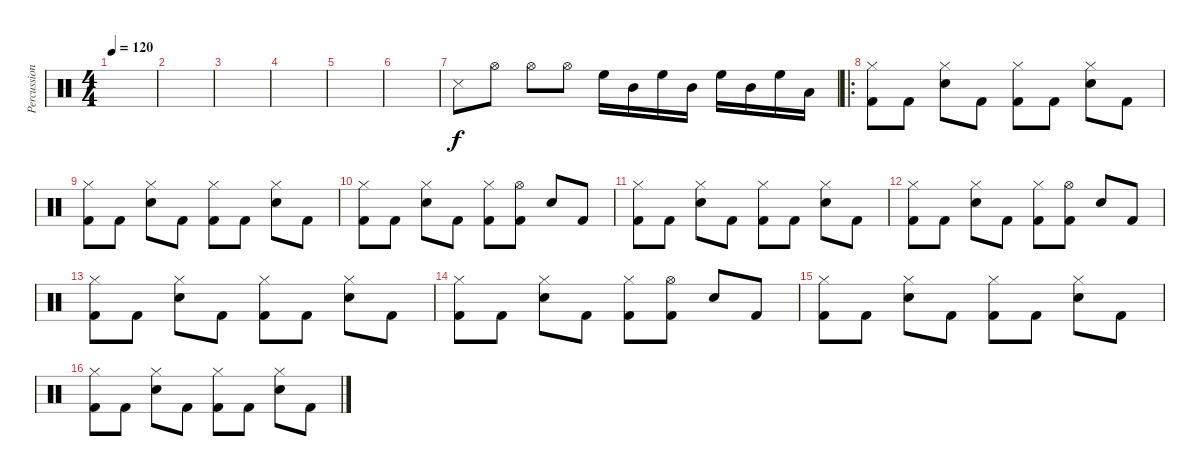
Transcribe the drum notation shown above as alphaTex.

\track ("Percussions" "Percussion") {instrument percussion}
\staff {score}
\articulation defaults
\ts (4 4)
\tempo 120
\clef neutral
\ks c
|
|
|
|
|
|
"Snare (side stick) 3".8 "Hi-Hat (open)".8 "Hi-Hat (open)".8 "Hi-Hat (open)".8 "High Floor Tom (hit)".16 "Mid Tom (hit)".16 "High Floor Tom (hit)".16 "Mid Tom (hit)".16 "High Floor Tom (hit)".16 "Mid Tom (hit)".16 "High Floor Tom (hit)".16 "Low Tom (hit)".16 |
\ro
("Hi-Hat (closed)" "Kick (hit) 2").8 "Kick (hit) 2".8 ("Hi-Hat (closed)" "Electric Snare (hit)").8 "Kick (hit) 2".8 ("Hi-Hat (closed)" "Kick (hit) 2").8 "Kick (hit) 2".8 ("Hi-Hat (closed)" "Electric Snare (hit)").8 "Kick (hit) 2".8 |
("Hi-Hat (closed)" "Kick (hit) 2").8 "Kick (hit) 2".8 ("Hi-Hat (closed)" "Electric Snare (hit)").8 "Kick (hit) 2".8 ("Hi-Hat (closed)" "Kick (hit) 2").8 "Kick (hit) 2".8 ("Hi-Hat (closed)" "Electric Snare (hit)").8 "Kick (hit) 2".8 |
("Hi-Hat (closed)" "Kick (hit) 2").8 "Kick (hit) 2".8 ("Hi-Hat (closed)" "Electric Snare (hit)").8 "Kick (hit) 2".8 ("Hi-Hat (closed)" "Kick (hit) 2").8 ("Hi-Hat (open)" "Kick (hit) 2").8 "Electric Snare (hit)".8 "Kick (hit) 2".8 |
("Hi-Hat (closed)" "Kick (hit) 2").8 "Kick (hit) 2".8 ("Hi-Hat (closed)" "Electric Snare (hit)").8 "Kick (hit) 2".8 ("Hi-Hat (closed)" "Kick (hit) 2").8 "Kick (hit) 2".8 ("Hi-Hat (closed)" "Electric Snare (hit)").8 "Kick (hit) 2".8 |
("Hi-Hat (closed)" "Kick (hit) 2").8 "Kick (hit) 2".8 ("Hi-Hat (closed)" "Electric Snare (hit)").8 "Kick (hit) 2".8 ("Hi-Hat (closed)" "Kick (hit) 2").8 ("Hi-Hat (open)" "Kick (hit) 2").8 "Electric Snare (hit)".8 "Kick (hit) 2".8 |
("Hi-Hat (closed)" "Kick (hit) 2").8 "Kick (hit) 2".8 ("Hi-Hat (closed)" "Electric Snare (hit)").8 "Kick (hit) 2".8 ("Hi-Hat (closed)" "Kick (hit) 2").8 "Kick (hit) 2".8 ("Hi-Hat (closed)" "Electric Snare (hit)").8 "Kick (hit) 2".8 |
("Hi-Hat (closed)" "Kick (hit) 2").8 "Kick (hit) 2".8 ("Hi-Hat (closed)" "Electric Snare (hit)").8 "Kick (hit) 2".8 ("Hi-Hat (closed)" "Kick (hit) 2").8 ("Hi-Hat (open)" "Kick (hit) 2").8 "Electric Snare (hit)".8 "Kick (hit) 2".8 |
("Hi-Hat (closed)" "Kick (hit) 2").8 "Kick (hit) 2".8 ("Hi-Hat (closed)" "Electric Snare (hit)").8 "Kick (hit) 2".8 ("Hi-Hat (closed)" "Kick (hit) 2").8 "Kick (hit) 2".8 ("Hi-Hat (closed)" "Electric Snare (hit)").8 "Kick (hit) 2".8 |
("Hi-Hat (closed)" "Kick (hit) 2").8 "Kick (hit) 2".8 ("Hi-Hat (closed)" "Electric Snare (hit)").8 "Kick (hit) 2".8 ("Hi-Hat (closed)" "Kick (hit) 2").8 "Kick (hit) 2".8 ("Hi-Hat (closed)" "Electric Snare (hit)").8 "Kick (hit) 2".8
